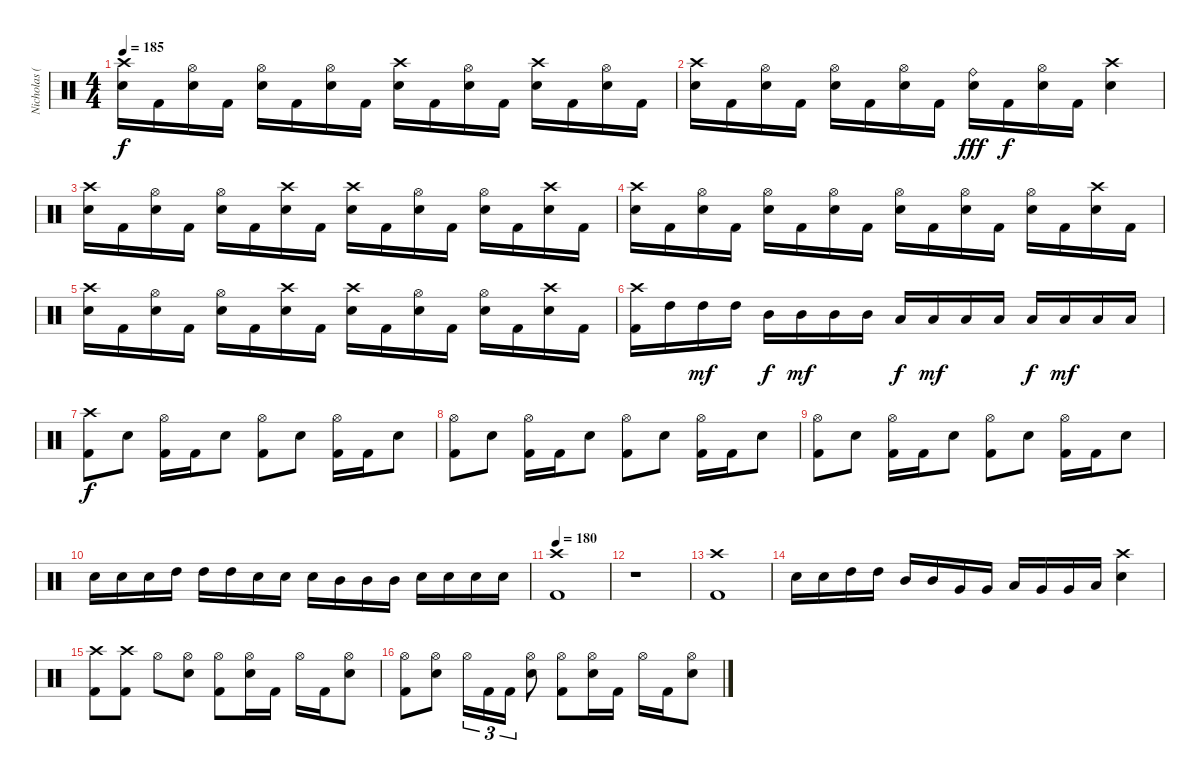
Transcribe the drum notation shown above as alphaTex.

\track ("Nicholas (Drums)" "Nicholas (") {instrument percussion}
\staff {score}
\articulation defaults
\ts (4 4)
\tempo 185
\clef neutral
\ks c
("Crash high (hit)" "Electric Snare (hit)").16{dy f} "Kick (hit) 2".16 ("Hi-Hat (open)" "Electric Snare (hit)").16 "Kick (hit) 2".16 ("Hi-Hat (open)" "Electric Snare (hit)").16 "Kick (hit) 2".16 ("Hi-Hat (open)" "Electric Snare (hit)").16 "Kick (hit) 2".16 ("Crash high (hit)" "Electric Snare (hit)").16 "Kick (hit) 2".16 ("Hi-Hat (open)" "Electric Snare (hit)").16 "Kick (hit) 2".16 ("Crash high (hit)" "Electric Snare (hit)").16 "Kick (hit) 2".16 ("Hi-Hat (open)" "Electric Snare (hit)").16 "Kick (hit) 2".16 |
("Crash high (hit)" "Electric Snare (hit)").16 "Kick (hit) 2".16 ("Hi-Hat (open)" "Electric Snare (hit)").16 "Kick (hit) 2".16 ("Hi-Hat (open)" "Electric Snare (hit)").16 "Kick (hit) 2".16 ("Hi-Hat (open)" "Electric Snare (hit)").16 "Kick (hit) 2".16 ("Ride (bell)" "Electric Snare (hit)").16{dy fff} "Kick (hit) 2".16{dy f} ("Hi-Hat (open)" "Electric Snare (hit)").16 "Kick (hit) 2".16 ("Crash high (hit)" "Electric Snare (hit)").4 |
("Crash high (hit)" "Electric Snare (hit)").16 "Kick (hit) 2".16 ("Hi-Hat (open)" "Electric Snare (hit)").16 "Kick (hit) 2".16 ("Hi-Hat (open)" "Electric Snare (hit)").16 "Kick (hit) 2".16 ("Crash high (hit)" "Electric Snare (hit)").16 "Kick (hit) 2".16 ("Crash high (hit)" "Electric Snare (hit)").16 "Kick (hit) 2".16 ("Hi-Hat (open)" "Electric Snare (hit)").16 "Kick (hit) 2".16 ("Hi-Hat (open)" "Electric Snare (hit)").16 "Kick (hit) 2".16 ("Crash high (hit)" "Electric Snare (hit)").16 "Kick (hit) 2".16 |
("Crash high (hit)" "Electric Snare (hit)").16 "Kick (hit) 2".16 ("Hi-Hat (open)" "Electric Snare (hit)").16 "Kick (hit) 2".16 ("Hi-Hat (open)" "Electric Snare (hit)").16 "Kick (hit) 2".16 ("Hi-Hat (open)" "Electric Snare (hit)").16 "Kick (hit) 2".16 ("Hi-Hat (open)" "Electric Snare (hit)").16 "Kick (hit) 2".16 ("Hi-Hat (open)" "Electric Snare (hit)").16 "Kick (hit) 2".16 ("Hi-Hat (open)" "Electric Snare (hit)").16 "Kick (hit) 2".16 ("Crash high (hit)" "Electric Snare (hit)").16 "Kick (hit) 2".16 |
("Crash high (hit)" "Electric Snare (hit)").16 "Kick (hit) 2".16 ("Hi-Hat (open)" "Electric Snare (hit)").16 "Kick (hit) 2".16 ("Hi-Hat (open)" "Electric Snare (hit)").16 "Kick (hit) 2".16 ("Crash high (hit)" "Electric Snare (hit)").16 "Kick (hit) 2".16 ("Crash high (hit)" "Electric Snare (hit)").16 "Kick (hit) 2".16 ("Hi-Hat (open)" "Electric Snare (hit)").16 "Kick (hit) 2".16 ("Hi-Hat (open)" "Electric Snare (hit)").16 "Kick (hit) 2".16 ("Crash high (hit)" "Electric Snare (hit)").16 "Kick (hit) 2".16 |
("Crash high (hit)" "Kick (hit) 2").16 "High Tom (hit)".16 "High Tom (hit)".16{dy mf} "High Tom (hit)".16 "Mid Tom (hit)".16{dy f} "Mid Tom (hit)".16{dy mf} "Mid Tom (hit)".16 "Mid Tom (hit)".16 "Low Tom (hit)".16{dy f} "Low Tom (hit)".16{dy mf} "Low Tom (hit)".16 "Low Tom (hit)".16 "Low Floor Tom (hit)".16{dy f} "Low Floor Tom (hit)".16{dy mf} "Low Floor Tom (hit)".16 "Low Floor Tom (hit)".16 |
("Crash high (hit)" "Kick (hit) 2").8{dy f} "Electric Snare (hit)".8 ("Hi-Hat (open)" "Kick (hit) 2").16 "Kick (hit) 2".16 "Electric Snare (hit)".8 ("Hi-Hat (open)" "Kick (hit) 2").8 "Electric Snare (hit)".8 ("Hi-Hat (open)" "Kick (hit) 2").16 "Kick (hit) 2".16 "Electric Snare (hit)".8 |
("Hi-Hat (open)" "Kick (hit) 2").8 "Electric Snare (hit)".8 ("Hi-Hat (open)" "Kick (hit) 2").16 "Kick (hit) 2".16 "Electric Snare (hit)".8 ("Hi-Hat (open)" "Kick (hit) 2").8 "Electric Snare (hit)".8 ("Hi-Hat (open)" "Kick (hit) 2").16 "Kick (hit) 2".16 "Electric Snare (hit)".8 |
("Hi-Hat (open)" "Kick (hit) 2").8 "Electric Snare (hit)".8 ("Hi-Hat (open)" "Kick (hit) 2").16 "Kick (hit) 2".16 "Electric Snare (hit)".8 ("Hi-Hat (open)" "Kick (hit) 2").8 "Electric Snare (hit)".8 ("Hi-Hat (open)" "Kick (hit) 2").16 "Kick (hit) 2".16 "Electric Snare (hit)".8 |
"Electric Snare (hit)".16 "Electric Snare (hit)".16 "Electric Snare (hit)".16 "High Tom (hit)".16 "High Tom (hit)".16 "High Tom (hit)".16 "Electric Snare (hit)".16 "Electric Snare (hit)".16 "Electric Snare (hit)".16 "Mid Tom (hit)".16 "Mid Tom (hit)".16 "Mid Tom (hit)".16 "Electric Snare (hit)".16 "Electric Snare (hit)".16 "Electric Snare (hit)".16 "Electric Snare (hit)".16 |
\tempo 180
("Crash high (hit)" "Kick (hit) 2").1 |
r.1 |
("Crash high (hit)" "Kick (hit) 2").1 |
"Electric Snare (hit)".16 "Electric Snare (hit)".16 "High Tom (hit)".16 "High Tom (hit)".16 "Mid Tom (hit)".16 "Mid Tom (hit)".16 "Very Low Tom (hit)".16 "Very Low Tom (hit)".16 "Low Tom (hit)".16 "Very Low Tom (hit)".16 "Very Low Tom (hit)".16 "Low Tom (hit)".16 ("Crash high (hit)" "Electric Snare (hit)").4 |
("Crash high (hit)" "Kick (hit) 2").8 ("Crash high (hit)" "Kick (hit) 2").8 "Hi-Hat (open)".8 ("Hi-Hat (open)" "Electric Snare (hit)").8 ("Hi-Hat (open)" "Kick (hit) 2").8 ("Hi-Hat (open)" "Electric Snare (hit)").16 "Kick (hit) 2".16 "Hi-Hat (open)".16 "Kick (hit) 2".16 ("Hi-Hat (open)" "Electric Snare (hit)").8 |
("Hi-Hat (open)" "Kick (hit) 2").8 ("Hi-Hat (open)" "Electric Snare (hit)").8 "Hi-Hat (open)".16{tu (3 2)} "Kick (hit) 2".16{tu (3 2)} "Kick (hit) 2".16{tu (3 2)} ("Hi-Hat (open)" "Electric Snare (hit)").8 ("Hi-Hat (open)" "Kick (hit) 2").8 ("Hi-Hat (open)" "Electric Snare (hit)").16 "Kick (hit) 2".16 "Hi-Hat (open)".16 "Kick (hit) 2".16 ("Hi-Hat (open)" "Electric Snare (hit)").8
